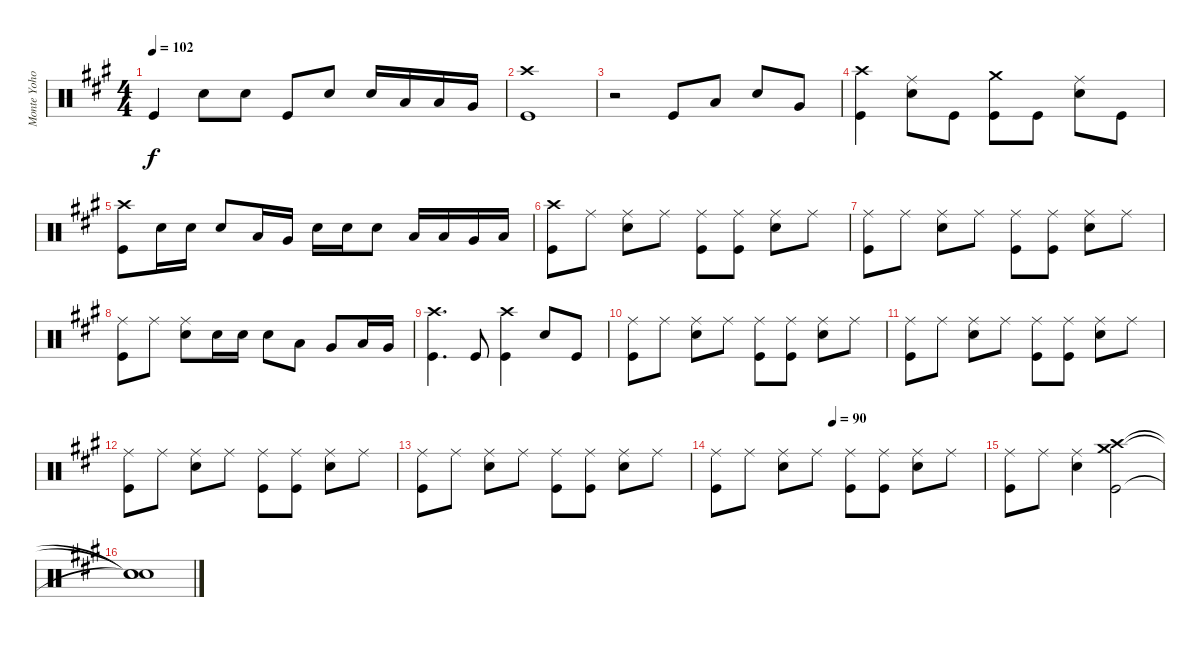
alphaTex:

\track ("Monte Yoho Drums" "Monte Yoho") {instrument percussion}
\staff {score}
\articulation defaults
\ts (4 4)
\tempo 102
\clef neutral
\ks a "Kick (hit)".4{dy f} "Snare (hit) 2".8 "Snare (hit) 2".8 "Kick (hit)".8 "Snare (hit) 2".8 "Snare (hit) 2".16 "Low Tom (hit)".16 "Low Tom (hit)".16 "Very Low Tom (hit)".16
|
("Crash high (hit)" "Kick (hit)").1 |
r.2 "Kick (hit)".8 "Low Floor Tom (hit)".8 "Snare (hit) 2".8 "Very Low Tom (hit)".8 |
("Crash high (hit)" "Kick (hit)").4 ("Ride (middle)" "Snare (hit) 2").8 "Kick (hit)".8 ("Crash medium (hit)" "Kick (hit)").8 "Kick (hit)".8 ("Ride (middle)" "Snare (hit) 2").8 "Kick (hit)".8 |
("Crash high (hit)" "Kick (hit)").8 "Snare (hit) 2".16 "Snare (hit) 2".16 "Snare (hit) 2".8 "Low Tom (hit)".16 "Very Low Tom (hit)".16 "Snare (hit) 2".16 "Snare (hit) 2".16 "Snare (hit) 2".8 "Low Tom (hit)".16 "Low Tom (hit)".16 "Very Low Tom (hit)".16 "Low Floor Tom (hit)".16 |
("Crash high (hit)" "Kick (hit)").8 "Ride (middle)".8 ("Ride (middle)" "Snare (hit) 2").8 "Ride (middle)".8 ("Ride (middle)" "Kick (hit)").8 ("Ride (middle)" "Kick (hit)").8 ("Ride (middle)" "Snare (hit) 2").8 "Ride (middle)".8 |
("Ride (middle)" "Kick (hit)").8 "Ride (middle)".8 ("Ride (middle)" "Snare (hit) 2").8 "Ride (middle)".8 ("Ride (middle)" "Kick (hit)").8 ("Ride (middle)" "Kick (hit)").8 ("Ride (middle)" "Snare (hit) 2").8 "Ride (middle)".8 |
("Ride (middle)" "Kick (hit)").8 "Ride (middle)".8 ("Ride (middle)" "Snare (hit) 2").8 "Snare (hit) 2".16 "Snare (hit) 2".16 "Snare (hit) 2".8 "Low Tom (hit)".8 "Very Low Tom (hit)".8 "Low Tom (hit)".16 "Very Low Tom (hit)".16 |
("Crash high (hit)" "Kick (hit)").4{d} "Kick (hit)".8 ("Crash high (hit)" "Kick (hit)").4 "Snare (hit) 2".8 "Kick (hit)".8 |
("Ride (middle)" "Kick (hit)").8 "Ride (middle)".8 ("Ride (middle)" "Snare (hit) 2").8 "Ride (middle)".8 ("Ride (middle)" "Kick (hit)").8 ("Ride (middle)" "Kick (hit)").8 ("Ride (middle)" "Snare (hit) 2").8 "Ride (middle)".8 |
("Ride (middle)" "Kick (hit)").8 "Ride (middle)".8 ("Ride (middle)" "Snare (hit) 2").8 "Ride (middle)".8 ("Ride (middle)" "Kick (hit)").8 ("Ride (middle)" "Kick (hit)").8 ("Ride (middle)" "Snare (hit) 2").8 "Ride (middle)".8 |
("Ride (middle)" "Kick (hit)").8 "Ride (middle)".8 ("Ride (middle)" "Snare (hit) 2").8 "Ride (middle)".8 ("Ride (middle)" "Kick (hit)").8 ("Ride (middle)" "Kick (hit)").8 ("Ride (middle)" "Snare (hit) 2").8 "Ride (middle)".8 |
("Ride (middle)" "Kick (hit)").8 "Ride (middle)".8 ("Ride (middle)" "Snare (hit) 2").8 "Ride (middle)".8 ("Ride (middle)" "Kick (hit)").8 ("Ride (middle)" "Kick (hit)").8 ("Ride (middle)" "Snare (hit) 2").8 "Ride (middle)".8 |
\tempo (90 0.4375)
("Ride (middle)" "Kick (hit)").8 "Ride (middle)".8 ("Ride (middle)" "Snare (hit) 2").8 "Ride (middle)".8 ("Ride (middle)" "Kick (hit)").8 ("Ride (middle)" "Kick (hit)").8 ("Ride (middle)" "Snare (hit) 2").8 "Ride (middle)".8 |
("Ride (middle)" "Kick (hit)").8 "Ride (middle)".8 ("Ride (middle)" "Snare (hit) 2").4 ("Crash high (hit)" "Crash medium (hit)" "Kick (hit)").2 |
("Snare (hit)"{t} "Snare (hit)"{t} "Snare (hit)"{t}).1
